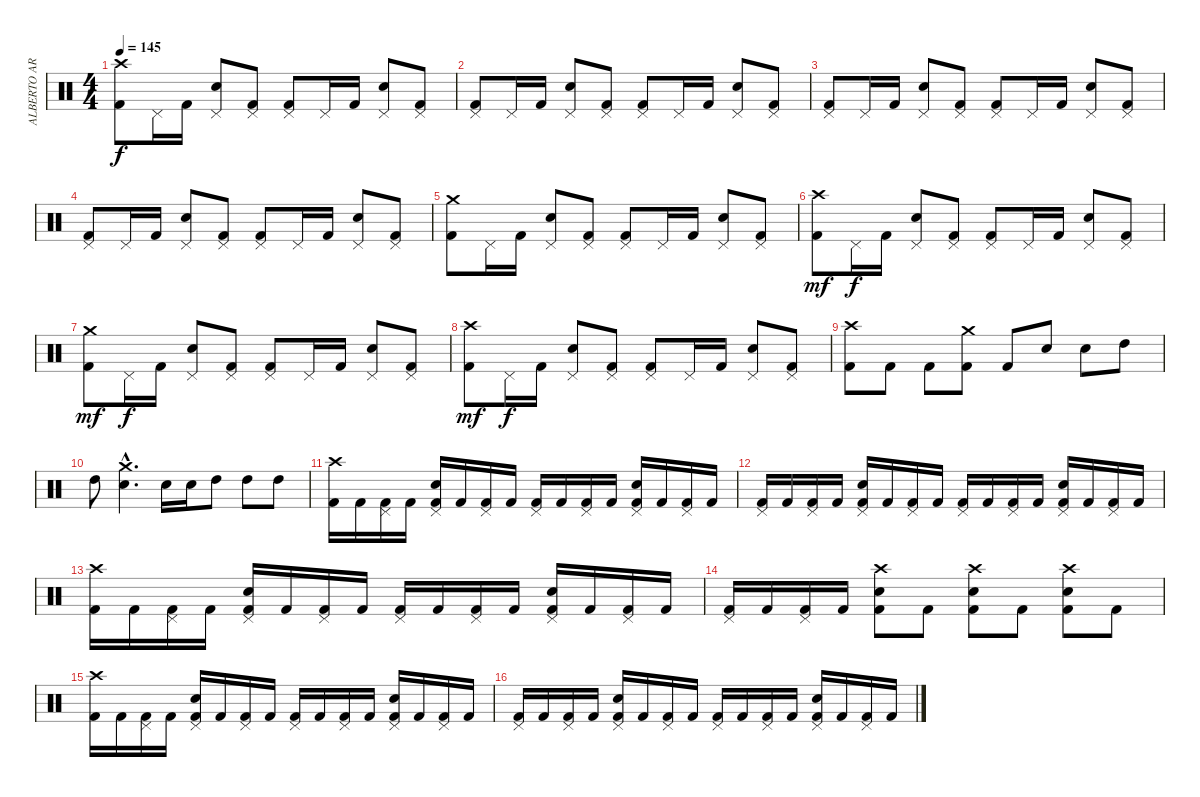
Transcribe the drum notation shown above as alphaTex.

\track ("ALBERTO ARDINES" "ALBERTO AR") {instrument percussion}
\staff {score}
\articulation defaults
\ts (4 4)
\tempo 145
\clef neutral
\ks c
("Crash high (hit)" "Kick (hit) 2").8{dy f} "Pedal Hi-Hat (hit)".16 "Kick (hit) 2".16 ("Pedal Hi-Hat (hit)" "Electric Snare (hit)").8 ("Pedal Hi-Hat (hit)" "Kick (hit) 2").8 ("Pedal Hi-Hat (hit)" "Kick (hit) 2").8 "Pedal Hi-Hat (hit)".16 "Kick (hit) 2".16 ("Pedal Hi-Hat (hit)" "Electric Snare (hit)").8 ("Pedal Hi-Hat (hit)" "Kick (hit) 2").8 |
("Pedal Hi-Hat (hit)" "Kick (hit) 2").8 "Pedal Hi-Hat (hit)".16 "Kick (hit) 2".16 ("Pedal Hi-Hat (hit)" "Electric Snare (hit)").8 ("Pedal Hi-Hat (hit)" "Kick (hit) 2").8 ("Pedal Hi-Hat (hit)" "Kick (hit) 2").8 "Pedal Hi-Hat (hit)".16 "Kick (hit) 2".16 ("Pedal Hi-Hat (hit)" "Electric Snare (hit)").8 ("Pedal Hi-Hat (hit)" "Kick (hit) 2").8 |
("Pedal Hi-Hat (hit)" "Kick (hit) 2").8 "Pedal Hi-Hat (hit)".16 "Kick (hit) 2".16 ("Pedal Hi-Hat (hit)" "Electric Snare (hit)").8 ("Pedal Hi-Hat (hit)" "Kick (hit) 2").8 ("Pedal Hi-Hat (hit)" "Kick (hit) 2").8 "Pedal Hi-Hat (hit)".16 "Kick (hit) 2".16 ("Pedal Hi-Hat (hit)" "Electric Snare (hit)").8 ("Pedal Hi-Hat (hit)" "Kick (hit) 2").8 |
("Pedal Hi-Hat (hit)" "Kick (hit) 2").8 "Pedal Hi-Hat (hit)".16 "Kick (hit) 2".16 ("Pedal Hi-Hat (hit)" "Electric Snare (hit)").8 ("Pedal Hi-Hat (hit)" "Kick (hit) 2").8 ("Pedal Hi-Hat (hit)" "Kick (hit) 2").8 "Pedal Hi-Hat (hit)".16 "Kick (hit) 2".16 ("Pedal Hi-Hat (hit)" "Electric Snare (hit)").8 ("Pedal Hi-Hat (hit)" "Kick (hit) 2").8 |
("Crash medium (hit)" "Kick (hit) 2").8 "Pedal Hi-Hat (hit)".16 "Kick (hit) 2".16 ("Pedal Hi-Hat (hit)" "Electric Snare (hit)").8 ("Pedal Hi-Hat (hit)" "Kick (hit) 2").8 ("Pedal Hi-Hat (hit)" "Kick (hit) 2").8 "Pedal Hi-Hat (hit)".16 "Kick (hit) 2".16 ("Pedal Hi-Hat (hit)" "Electric Snare (hit)").8 ("Pedal Hi-Hat (hit)" "Kick (hit) 2").8 |
("Crash high (hit)" "Kick (hit) 2").8{dy mf} "Pedal Hi-Hat (hit)".16{dy f} "Kick (hit) 2".16 ("Pedal Hi-Hat (hit)" "Electric Snare (hit)").8 ("Pedal Hi-Hat (hit)" "Kick (hit) 2").8 ("Pedal Hi-Hat (hit)" "Kick (hit) 2").8 "Pedal Hi-Hat (hit)".16 "Kick (hit) 2".16 ("Pedal Hi-Hat (hit)" "Electric Snare (hit)").8 ("Pedal Hi-Hat (hit)" "Kick (hit) 2").8 |
("Crash medium (hit)" "Kick (hit) 2").8{dy mf} "Pedal Hi-Hat (hit)".16{dy f} "Kick (hit) 2".16 ("Pedal Hi-Hat (hit)" "Electric Snare (hit)").8 ("Pedal Hi-Hat (hit)" "Kick (hit) 2").8 ("Pedal Hi-Hat (hit)" "Kick (hit) 2").8 "Pedal Hi-Hat (hit)".16 "Kick (hit) 2".16 ("Pedal Hi-Hat (hit)" "Electric Snare (hit)").8 ("Pedal Hi-Hat (hit)" "Kick (hit) 2").8 |
("Crash high (hit)" "Kick (hit) 2").8{dy mf} "Pedal Hi-Hat (hit)".16{dy f} "Kick (hit) 2".16 ("Pedal Hi-Hat (hit)" "Electric Snare (hit)").8 ("Pedal Hi-Hat (hit)" "Kick (hit) 2").8 ("Pedal Hi-Hat (hit)" "Kick (hit) 2").8 "Pedal Hi-Hat (hit)".16 "Kick (hit) 2".16 ("Pedal Hi-Hat (hit)" "Electric Snare (hit)").8 ("Pedal Hi-Hat (hit)" "Kick (hit) 2").8 |
("Crash high (hit)" "Kick (hit) 2").8 "Kick (hit) 2".8 "Kick (hit) 2".8 ("Crash medium (hit)" "Kick (hit) 2").8 "Kick (hit) 2".8 "Electric Snare (hit)".8 "Electric Snare (hit)".8 "High Tom (hit)".8 |
"High Tom (hit)".8 ("Crash medium (hit)"{hac} "Electric Snare (hit)"{hac}).4{d} "Electric Snare (hit)".16 "Electric Snare (hit)".16 "High Tom (hit)".8 "High Tom (hit)".8 "High Tom (hit)".8 |
("Crash high (hit)" "Kick (hit) 2").16 "Kick (hit) 2".16 ("Pedal Hi-Hat (hit)" "Kick (hit) 2").16 "Kick (hit) 2".16 ("Pedal Hi-Hat (hit)" "Electric Snare (hit)" "Kick (hit) 2").16 "Kick (hit) 2".16 ("Pedal Hi-Hat (hit)" "Kick (hit) 2").16 "Kick (hit) 2".16 ("Pedal Hi-Hat (hit)" "Kick (hit) 2").16 "Kick (hit) 2".16 ("Pedal Hi-Hat (hit)" "Kick (hit) 2").16 "Kick (hit) 2".16 ("Pedal Hi-Hat (hit)" "Electric Snare (hit)" "Kick (hit) 2").16 "Kick (hit) 2".16 ("Pedal Hi-Hat (hit)" "Kick (hit) 2").16 "Kick (hit) 2".16 |
("Pedal Hi-Hat (hit)" "Kick (hit) 2").16 "Kick (hit) 2".16 ("Pedal Hi-Hat (hit)" "Kick (hit) 2").16 "Kick (hit) 2".16 ("Pedal Hi-Hat (hit)" "Electric Snare (hit)" "Kick (hit) 2").16 "Kick (hit) 2".16 ("Pedal Hi-Hat (hit)" "Kick (hit) 2").16 "Kick (hit) 2".16 ("Pedal Hi-Hat (hit)" "Kick (hit) 2").16 "Kick (hit) 2".16 ("Pedal Hi-Hat (hit)" "Kick (hit) 2").16 "Kick (hit) 2".16 ("Pedal Hi-Hat (hit)" "Electric Snare (hit)" "Kick (hit) 2").16 "Kick (hit) 2".16 ("Pedal Hi-Hat (hit)" "Kick (hit) 2").16 "Kick (hit) 2".16 |
("Crash high (hit)" "Kick (hit) 2").16 "Kick (hit) 2".16 ("Pedal Hi-Hat (hit)" "Kick (hit) 2").16 "Kick (hit) 2".16 ("Pedal Hi-Hat (hit)" "Electric Snare (hit)" "Kick (hit) 2").16 "Kick (hit) 2".16 ("Pedal Hi-Hat (hit)" "Kick (hit) 2").16 "Kick (hit) 2".16 ("Pedal Hi-Hat (hit)" "Kick (hit) 2").16 "Kick (hit) 2".16 ("Pedal Hi-Hat (hit)" "Kick (hit) 2").16 "Kick (hit) 2".16 ("Pedal Hi-Hat (hit)" "Electric Snare (hit)" "Kick (hit) 2").16 "Kick (hit) 2".16 ("Pedal Hi-Hat (hit)" "Kick (hit) 2").16 "Kick (hit) 2".16 |
("Pedal Hi-Hat (hit)" "Kick (hit) 2").16 "Kick (hit) 2".16 ("Pedal Hi-Hat (hit)" "Kick (hit) 2").16 "Kick (hit) 2".16 ("Crash high (hit)" "Electric Snare (hit)" "Kick (hit) 2").8 "Kick (hit) 2".8 ("Crash high (hit)" "Electric Snare (hit)" "Kick (hit) 2").8 "Kick (hit) 2".8 ("Crash high (hit)" "Electric Snare (hit)" "Kick (hit) 2").8 "Kick (hit) 2".8 |
("Crash high (hit)" "Kick (hit) 2").16 "Kick (hit) 2".16 ("Pedal Hi-Hat (hit)" "Kick (hit) 2").16 "Kick (hit) 2".16 ("Pedal Hi-Hat (hit)" "Electric Snare (hit)" "Kick (hit) 2").16 "Kick (hit) 2".16 ("Pedal Hi-Hat (hit)" "Kick (hit) 2").16 "Kick (hit) 2".16 ("Pedal Hi-Hat (hit)" "Kick (hit) 2").16 "Kick (hit) 2".16 ("Pedal Hi-Hat (hit)" "Kick (hit) 2").16 "Kick (hit) 2".16 ("Pedal Hi-Hat (hit)" "Electric Snare (hit)" "Kick (hit) 2").16 "Kick (hit) 2".16 ("Pedal Hi-Hat (hit)" "Kick (hit) 2").16 "Kick (hit) 2".16 |
("Pedal Hi-Hat (hit)" "Kick (hit) 2").16 "Kick (hit) 2".16 ("Pedal Hi-Hat (hit)" "Kick (hit) 2").16 "Kick (hit) 2".16 ("Pedal Hi-Hat (hit)" "Electric Snare (hit)" "Kick (hit) 2").16 "Kick (hit) 2".16 ("Pedal Hi-Hat (hit)" "Kick (hit) 2").16 "Kick (hit) 2".16 ("Pedal Hi-Hat (hit)" "Kick (hit) 2").16 "Kick (hit) 2".16 ("Pedal Hi-Hat (hit)" "Kick (hit) 2").16 "Kick (hit) 2".16 ("Pedal Hi-Hat (hit)" "Electric Snare (hit)" "Kick (hit) 2").16 "Kick (hit) 2".16 ("Pedal Hi-Hat (hit)" "Kick (hit) 2").16 "Kick (hit) 2".16
